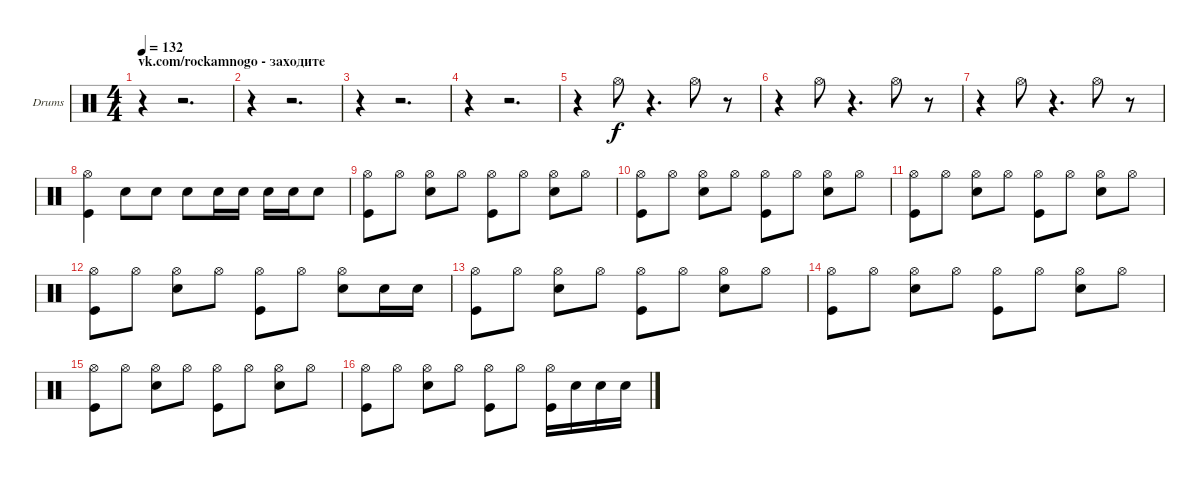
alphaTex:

\bracketExtendMode groupsimilarinstruments
\firstSystemTrackNameOrientation horizontal
\otherSystemsTrackNameOrientation horizontal
\track ("Александр Львов" "Drums") {instrument percussion}
\staff {score}
\articulation defaults
\ts (4 4)
\section ("" "vk.com/rockamnogo - заходите")
\tempo 132
\clef neutral
\ks c
r.4{dy f} r.2{d} |
r.4 r.2{d} |
r.4 r.2{d} |
r.4 r.2{d} |
r.4 "Hi-Hat (open)".8 r.4{d} "Hi-Hat (open)".8 r.8 |
r.4 "Hi-Hat (open)".8 r.4{d} "Hi-Hat (open)".8 r.8 |
r.4 "Hi-Hat (open)".8 r.4{d} "Hi-Hat (open)".8 r.8 |
("Hi-Hat (open)" "Kick (hit)").4 "Snare (hit) 2".8 "Snare (hit) 2".8 "Snare (hit) 2".8 "Snare (hit) 2".16 "Snare (hit) 2".16 "Snare (hit) 2".16 "Snare (hit) 2".16 "Snare (hit) 2".8 |
("Hi-Hat (open)" "Kick (hit)").8 "Hi-Hat (open)".8 ("Hi-Hat (open)" "Snare (hit) 2").8 "Hi-Hat (open)".8 ("Hi-Hat (open)" "Kick (hit)").8 "Hi-Hat (open)".8 ("Hi-Hat (open)" "Snare (hit) 2").8 "Hi-Hat (open)".8 |
("Hi-Hat (open)" "Kick (hit)").8 "Hi-Hat (open)".8 ("Hi-Hat (open)" "Snare (hit) 2").8 "Hi-Hat (open)".8 ("Hi-Hat (open)" "Kick (hit)").8 "Hi-Hat (open)".8 ("Hi-Hat (open)" "Snare (hit) 2").8 "Hi-Hat (open)".8 |
("Hi-Hat (open)" "Kick (hit)").8 "Hi-Hat (open)".8 ("Hi-Hat (open)" "Snare (hit) 2").8 "Hi-Hat (open)".8 ("Hi-Hat (open)" "Kick (hit)").8 "Hi-Hat (open)".8 ("Hi-Hat (open)" "Snare (hit) 2").8 "Hi-Hat (open)".8 |
("Hi-Hat (open)" "Kick (hit)").8 "Hi-Hat (open)".8 ("Hi-Hat (open)" "Snare (hit) 2").8 "Hi-Hat (open)".8 ("Hi-Hat (open)" "Kick (hit)").8 "Hi-Hat (open)".8 ("Hi-Hat (open)" "Snare (hit) 2").8 "Snare (hit) 2".16 "Snare (hit) 2".16 |
("Hi-Hat (open)" "Kick (hit)").8 "Hi-Hat (open)".8 ("Hi-Hat (open)" "Snare (hit) 2").8 "Hi-Hat (open)".8 ("Hi-Hat (open)" "Kick (hit)").8 "Hi-Hat (open)".8 ("Hi-Hat (open)" "Snare (hit) 2").8 "Hi-Hat (open)".8 |
("Hi-Hat (open)" "Kick (hit)").8 "Hi-Hat (open)".8 ("Hi-Hat (open)" "Snare (hit) 2").8 "Hi-Hat (open)".8 ("Hi-Hat (open)" "Kick (hit)").8 "Hi-Hat (open)".8 ("Hi-Hat (open)" "Snare (hit) 2").8 "Hi-Hat (open)".8 |
("Hi-Hat (open)" "Kick (hit)").8 "Hi-Hat (open)".8 ("Hi-Hat (open)" "Snare (hit) 2").8 "Hi-Hat (open)".8 ("Hi-Hat (open)" "Kick (hit)").8 "Hi-Hat (open)".8 ("Hi-Hat (open)" "Snare (hit) 2").8 "Hi-Hat (open)".8 |
("Hi-Hat (open)" "Kick (hit)").8 "Hi-Hat (open)".8 ("Hi-Hat (open)" "Snare (hit) 2").8 "Hi-Hat (open)".8 ("Hi-Hat (open)" "Kick (hit)").8 "Hi-Hat (open)".8 ("Hi-Hat (open)" "Kick (hit)").16 "Snare (hit) 2".16 "Snare (hit) 2".16 "Snare (hit) 2".16
